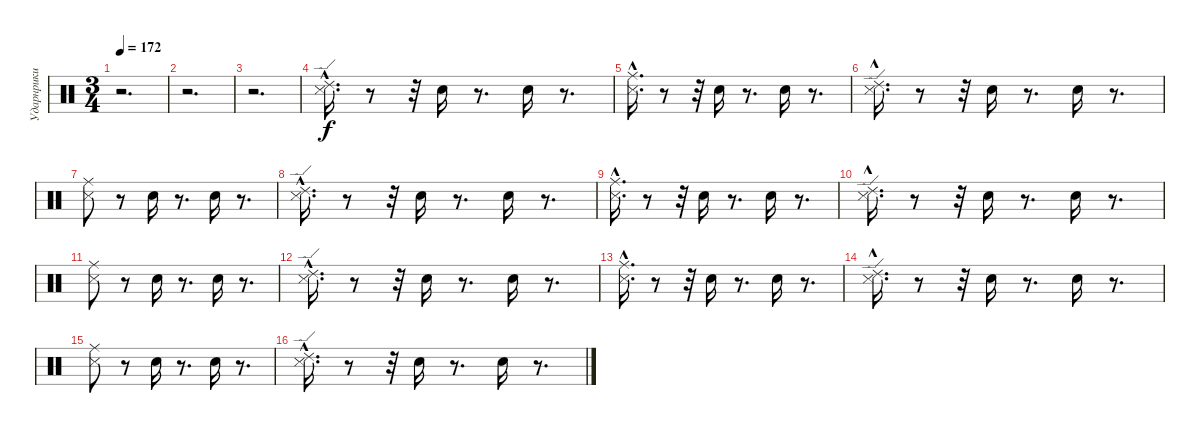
\track ("Ударнрики" "Ударнрики") {instrument percussion}
\staff {score}
\articulation defaults
\ts (3 4)
\tempo 172
\clef neutral
\ks c
r.2{d dy f} |
r.2{d} |
r.2{d} |
("Ride (edge) 2"{hac} "Metronome (hit)"{hac}).16{d} r.8 r.32 "Electric Snare (hit)".16 r.8{d} "Electric Snare (hit)".16 r.8{d} |
("Ride (middle)" "Metronome (hit)"{hac}).16{d} r.8 r.32 "Electric Snare (hit)".16 r.8{d} "Electric Snare (hit)".16 r.8{d} |
("Ride (edge) 2" "Metronome (hit)"{hac}).16{d} r.8 r.32 "Electric Snare (hit)".16 r.8{d} "Electric Snare (hit)".16 r.8{d} |
("Ride (middle)" "Metronome (hit)").8 r.8 "Electric Snare (hit)".16 r.8{d} "Electric Snare (hit)".16 r.8{d} |
("Ride (edge) 2"{hac} "Metronome (hit)"{hac}).16{d} r.8 r.32 "Electric Snare (hit)".16 r.8{d} "Electric Snare (hit)".16 r.8{d} |
("Ride (middle)" "Metronome (hit)"{hac}).16{d} r.8 r.32 "Electric Snare (hit)".16 r.8{d} "Electric Snare (hit)".16 r.8{d} |
("Ride (edge) 2" "Metronome (hit)"{hac}).16{d} r.8 r.32 "Electric Snare (hit)".16 r.8{d} "Electric Snare (hit)".16 r.8{d} |
("Ride (middle)" "Metronome (hit)").8 r.8 "Electric Snare (hit)".16 r.8{d} "Electric Snare (hit)".16 r.8{d} |
("Ride (edge) 2"{hac} "Metronome (hit)"{hac}).16{d} r.8 r.32 "Electric Snare (hit)".16 r.8{d} "Electric Snare (hit)".16 r.8{d} |
("Ride (middle)" "Metronome (hit)"{hac}).16{d} r.8 r.32 "Electric Snare (hit)".16 r.8{d} "Electric Snare (hit)".16 r.8{d} |
("Ride (edge) 2" "Metronome (hit)"{hac}).16{d} r.8 r.32 "Electric Snare (hit)".16 r.8{d} "Electric Snare (hit)".16 r.8{d} |
("Ride (middle)" "Metronome (hit)").8 r.8 "Electric Snare (hit)".16 r.8{d} "Electric Snare (hit)".16 r.8{d} |
("Ride (edge) 2"{hac} "Metronome (hit)"{hac}).16{d} r.8 r.32 "Electric Snare (hit)".16 r.8{d} "Electric Snare (hit)".16 r.8{d}
